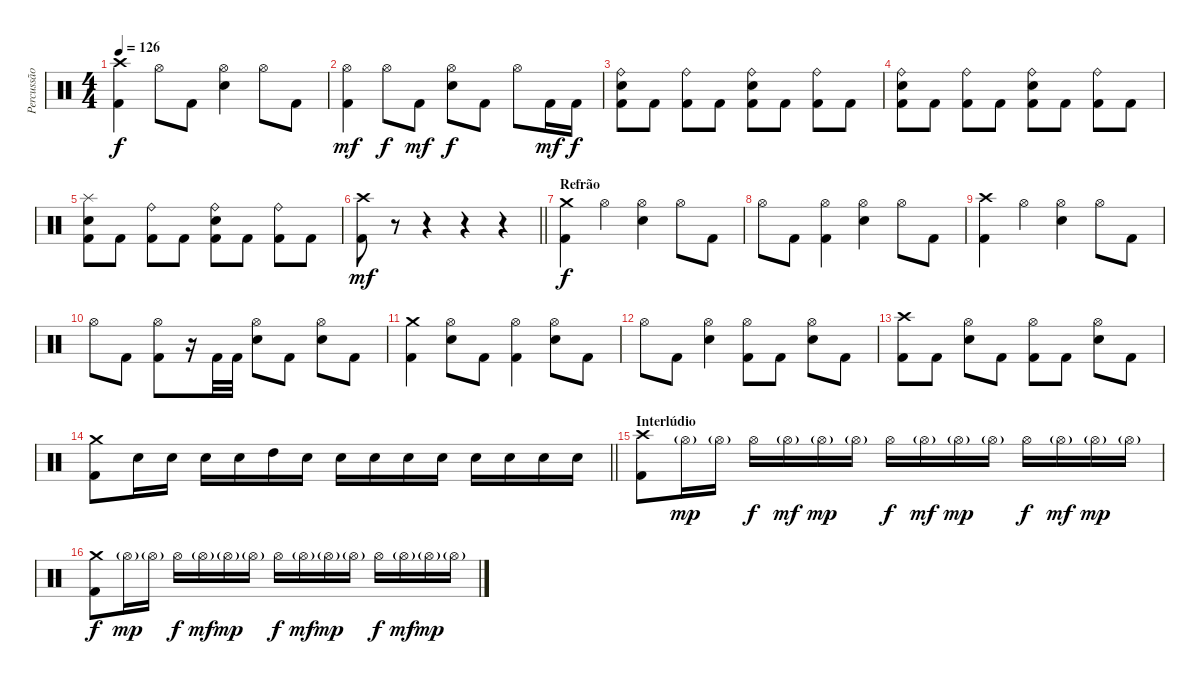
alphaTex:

\track ("Percussão" "Percussão") {instrument percussion}
\staff {score}
\articulation defaults
\ts (4 4)
\tempo 126
\clef neutral
\ks c
("Crash high (hit)" "Kick (hit) 2").4{dy f} "Hi-Hat (open)".8 "Kick (hit) 2".8 ("Hi-Hat (open)" "Electric Snare (hit)").4 "Hi-Hat (open)".8 "Kick (hit) 2".8 |
("Hi-Hat (open)" "Kick (hit) 2").4{dy mf} "Hi-Hat (open)".8{dy f} "Kick (hit) 2".8{dy mf} ("Hi-Hat (open)" "Electric Snare (hit)").8{dy f} "Kick (hit) 2".8 "Hi-Hat (open)".8 "Kick (hit) 2".16{dy mf} "Kick (hit) 2".16{dy f} |
("Ride (bell)" "Electric Snare (hit)" "Kick (hit) 2").8 "Kick (hit) 2".8 ("Ride (bell)" "Kick (hit) 2").8 "Kick (hit) 2".8 ("Ride (bell)" "Electric Snare (hit)" "Kick (hit) 2").8 "Kick (hit) 2".8 ("Ride (bell)" "Kick (hit) 2").8 "Kick (hit) 2".8 |
("Ride (bell)" "Electric Snare (hit)" "Kick (hit) 2").8 "Kick (hit) 2".8 ("Ride (bell)" "Kick (hit) 2").8 "Kick (hit) 2".8 ("Ride (bell)" "Electric Snare (hit)" "Kick (hit) 2").8 "Kick (hit) 2".8 ("Ride (bell)" "Kick (hit) 2").8 "Kick (hit) 2".8 |
("Splash (hit)" "Electric Snare (hit)" "Kick (hit) 2").8 "Kick (hit) 2".8 ("Ride (bell)" "Kick (hit) 2").8 "Kick (hit) 2".8 ("Ride (bell)" "Electric Snare (hit)" "Kick (hit) 2").8 "Kick (hit) 2".8 ("Ride (bell)" "Kick (hit) 2").8 "Kick (hit) 2".8 |
\barLineRight lightlight
("Crash high (hit)" "Kick (hit) 2").8{dy mf} r.8{volume 0} r.4 r.4 r.4 |
\section ("" "Refrão")
("Crash medium (hit)" "Kick (hit) 2").4{dy f volume 15} "Hi-Hat (open)".4 ("Hi-Hat (open)" "Electric Snare (hit)").4 "Hi-Hat (open)".8 "Kick (hit) 2".8 |
"Hi-Hat (open)".8 "Kick (hit) 2".8 ("Hi-Hat (open)" "Kick (hit) 2").4 ("Hi-Hat (open)" "Electric Snare (hit)").4 "Hi-Hat (open)".8 "Kick (hit) 2".8 |
("Crash high (hit)" "Kick (hit) 2").4 "Hi-Hat (open)".4 ("Hi-Hat (open)" "Electric Snare (hit)").4 "Hi-Hat (open)".8 "Kick (hit) 2".8 |
"Hi-Hat (open)".8 "Kick (hit) 2".8 ("Hi-Hat (open)" "Kick (hit) 2").8 r.16 "Kick (hit) 2".32 "Kick (hit) 2".32 ("Hi-Hat (open)" "Electric Snare (hit)").8 "Kick (hit) 2".8 ("Hi-Hat (open)" "Electric Snare (hit)").8 "Kick (hit) 2".8 |
("Crash medium (hit)" "Kick (hit) 2").4 ("Hi-Hat (open)" "Electric Snare (hit)").8 "Kick (hit) 2".8 ("Hi-Hat (open)" "Kick (hit) 2").4 ("Hi-Hat (open)" "Electric Snare (hit)").8 "Kick (hit) 2".8 |
"Hi-Hat (open)".8 "Kick (hit) 2".8 ("Hi-Hat (open)" "Electric Snare (hit)").4 ("Hi-Hat (open)" "Kick (hit) 2").8 "Kick (hit) 2".8 ("Hi-Hat (open)" "Electric Snare (hit)").8 "Kick (hit) 2".8 |
("Crash high (hit)" "Kick (hit) 2").8 "Kick (hit) 2".8 ("Hi-Hat (open)" "Electric Snare (hit)").8 "Kick (hit) 2".8 ("Hi-Hat (open)" "Kick (hit) 2").8 "Kick (hit) 2".8 ("Hi-Hat (open)" "Electric Snare (hit)").8 "Kick (hit) 2".8 |
\barLineRight lightlight
("Crash medium (hit)" "Kick (hit) 2").8 "Electric Snare (hit)".16 "Electric Snare (hit)".16 "Electric Snare (hit)".16 "Electric Snare (hit)".16 "High Tom (hit)".16 "Electric Snare (hit)".16 "Electric Snare (hit)".16 "Electric Snare (hit)".16 "Electric Snare (hit)".16 "Electric Snare (hit)".16 "Electric Snare (hit)".16 "Electric Snare (hit)".16 "Electric Snare (hit)".16 "Electric Snare (hit)".16 |
\section ("" "Interlúdio")
("Crash high (hit)" "Kick (hit) 2").8 "Hi-Hat (open)"{g}.16{dy mp} "Hi-Hat (open)"{g}.16 "Hi-Hat (open)".16{dy f} "Hi-Hat (open)"{g}.16{dy mf} "Hi-Hat (open)"{g}.16{dy mp} "Hi-Hat (open)"{g}.16 "Hi-Hat (open)".16{dy f} "Hi-Hat (open)"{g}.16{dy mf} "Hi-Hat (open)"{g}.16{dy mp} "Hi-Hat (open)"{g}.16 "Hi-Hat (open)".16{dy f} "Hi-Hat (open)"{g}.16{dy mf} "Hi-Hat (open)"{g}.16{dy mp} "Hi-Hat (open)"{g}.16 |
("Crash medium (hit)" "Kick (hit) 2").8{dy f} "Hi-Hat (open)"{g}.16{dy mp} "Hi-Hat (open)"{g}.16 "Hi-Hat (open)".16{dy f} "Hi-Hat (open)"{g}.16{dy mf} "Hi-Hat (open)"{g}.16{dy mp} "Hi-Hat (open)"{g}.16 "Hi-Hat (open)".16{dy f} "Hi-Hat (open)"{g}.16{dy mf} "Hi-Hat (open)"{g}.16{dy mp} "Hi-Hat (open)"{g}.16 "Hi-Hat (open)".16{dy f} "Hi-Hat (open)"{g}.16{dy mf} "Hi-Hat (open)"{g}.16{dy mp} "Hi-Hat (open)"{g}.16
